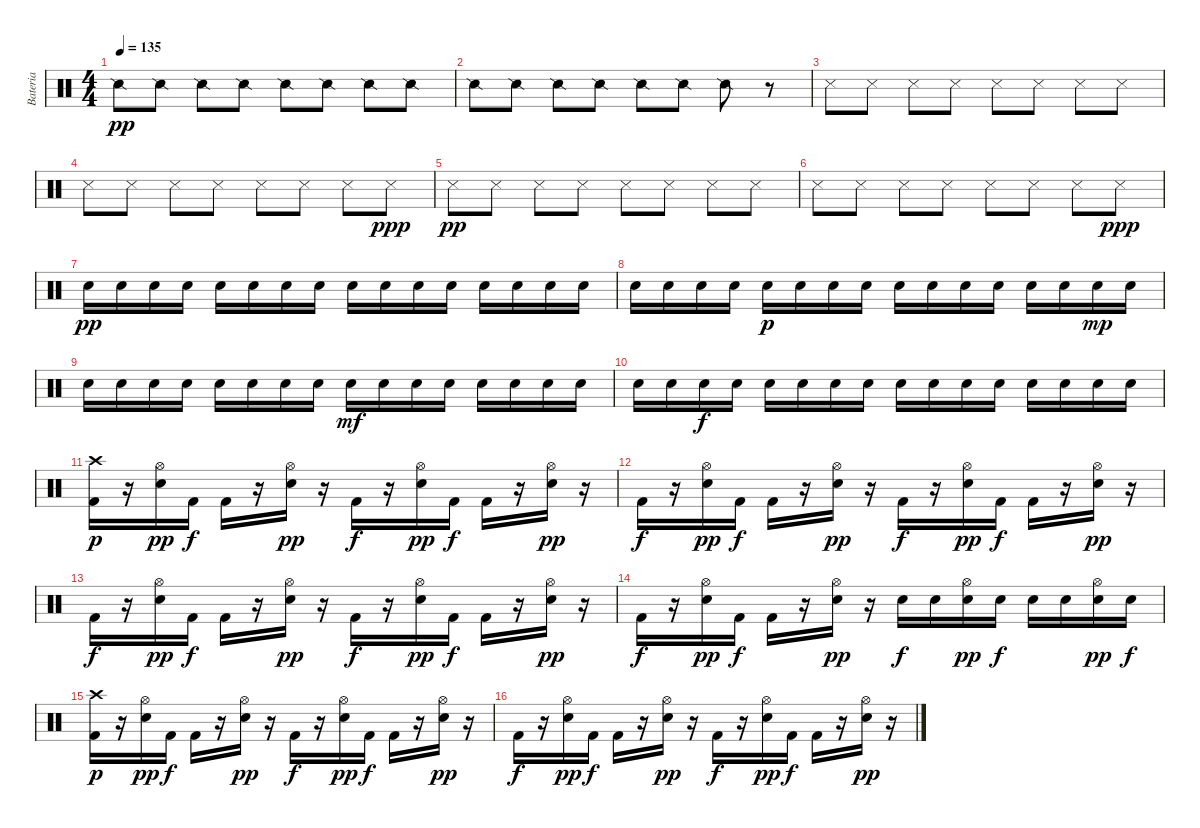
\track ("Bateria" "Bateria") {instrument percussion}
\staff {score}
\articulation defaults
\ts (4 4)
\tempo 135
\clef neutral
\ks c "Snare (side stick) 2".8{dy pp} "Snare (side stick) 2".8 "Snare (side stick) 2".8 "Snare (side stick) 2".8 "Snare (side stick) 2".8 "Snare (side stick) 2".8 "Snare (side stick) 2".8 "Snare (side stick) 2".8
|
"Snare (side stick) 2".8 "Snare (side stick) 2".8 "Snare (side stick) 2".8 "Snare (side stick) 2".8 "Snare (side stick) 2".8 "Snare (side stick) 2".8 "Snare (side stick) 2".8 r.8 |
"Snare (side stick) 3".8 "Snare (side stick) 3".8 "Snare (side stick) 3".8 "Snare (side stick) 3".8 "Snare (side stick) 3".8 "Snare (side stick) 3".8 "Snare (side stick) 3".8 "Snare (side stick) 3".8 |
"Snare (side stick) 3".8 "Snare (side stick) 3".8 "Snare (side stick) 3".8 "Snare (side stick) 3".8 "Snare (side stick) 3".8 "Snare (side stick) 3".8 "Snare (side stick) 3".8 "Snare (side stick) 3".8{dy ppp} |
"Snare (side stick) 3".8{dy pp} "Snare (side stick) 3".8 "Snare (side stick) 3".8 "Snare (side stick) 3".8 "Snare (side stick) 3".8 "Snare (side stick) 3".8 "Snare (side stick) 3".8 "Snare (side stick) 3".8 |
"Snare (side stick) 3".8 "Snare (side stick) 3".8 "Snare (side stick) 3".8 "Snare (side stick) 3".8 "Snare (side stick) 3".8 "Snare (side stick) 3".8 "Snare (side stick) 3".8 "Snare (side stick) 3".8{dy ppp} |
"Electric Snare (hit)".16{dy pp} "Electric Snare (hit)".16 "Electric Snare (hit)".16 "Electric Snare (hit)".16 "Electric Snare (hit)".16 "Electric Snare (hit)".16 "Electric Snare (hit)".16 "Electric Snare (hit)".16 "Electric Snare (hit)".16 "Electric Snare (hit)".16 "Electric Snare (hit)".16 "Electric Snare (hit)".16 "Electric Snare (hit)".16 "Electric Snare (hit)".16 "Electric Snare (hit)".16 "Electric Snare (hit)".16 |
"Electric Snare (hit)".16 "Electric Snare (hit)".16 "Electric Snare (hit)".16 "Electric Snare (hit)".16 "Electric Snare (hit)".16{dy p} "Electric Snare (hit)".16 "Electric Snare (hit)".16 "Electric Snare (hit)".16 "Electric Snare (hit)".16 "Electric Snare (hit)".16 "Electric Snare (hit)".16 "Electric Snare (hit)".16 "Electric Snare (hit)".16 "Electric Snare (hit)".16 "Electric Snare (hit)".16{dy mp} "Electric Snare (hit)".16 |
"Electric Snare (hit)".16 "Electric Snare (hit)".16 "Electric Snare (hit)".16 "Electric Snare (hit)".16 "Electric Snare (hit)".16 "Electric Snare (hit)".16 "Electric Snare (hit)".16 "Electric Snare (hit)".16 "Electric Snare (hit)".16{dy mf} "Electric Snare (hit)".16 "Electric Snare (hit)".16 "Electric Snare (hit)".16 "Electric Snare (hit)".16 "Electric Snare (hit)".16 "Electric Snare (hit)".16 "Electric Snare (hit)".16 |
"Electric Snare (hit)".16 "Electric Snare (hit)".16 "Electric Snare (hit)".16{dy f} "Electric Snare (hit)".16 "Electric Snare (hit)".16 "Electric Snare (hit)".16 "Electric Snare (hit)".16 "Electric Snare (hit)".16 "Electric Snare (hit)".16 "Electric Snare (hit)".16 "Electric Snare (hit)".16 "Electric Snare (hit)".16 "Electric Snare (hit)".16 "Electric Snare (hit)".16 "Electric Snare (hit)".16 "Electric Snare (hit)".16 |
("Kick (hit) 2" "Crash high (hit)").16{dy p} r.16 ("Electric Snare (hit)" "Hi-Hat (open)").16{dy pp} "Kick (hit) 2".16{dy f} "Kick (hit) 2".16 r.16 ("Electric Snare (hit)" "Hi-Hat (open)").16{dy pp} r.16 "Kick (hit) 2".16{dy f} r.16 ("Electric Snare (hit)" "Hi-Hat (open)").16{dy pp} "Kick (hit) 2".16{dy f} "Kick (hit) 2".16 r.16 ("Electric Snare (hit)" "Hi-Hat (open)").16{dy pp} r.16 |
"Kick (hit) 2".16{dy f} r.16 ("Electric Snare (hit)" "Hi-Hat (open)").16{dy pp} "Kick (hit) 2".16{dy f} "Kick (hit) 2".16 r.16 ("Electric Snare (hit)" "Hi-Hat (open)").16{dy pp} r.16 "Kick (hit) 2".16{dy f} r.16 ("Electric Snare (hit)" "Hi-Hat (open)").16{dy pp} "Kick (hit) 2".16{dy f} "Kick (hit) 2".16 r.16 ("Electric Snare (hit)" "Hi-Hat (open)").16{dy pp} r.16 |
"Kick (hit) 2".16{dy f} r.16 ("Electric Snare (hit)" "Hi-Hat (open)").16{dy pp} "Kick (hit) 2".16{dy f} "Kick (hit) 2".16 r.16 ("Electric Snare (hit)" "Hi-Hat (open)").16{dy pp} r.16 "Kick (hit) 2".16{dy f} r.16 ("Electric Snare (hit)" "Hi-Hat (open)").16{dy pp} "Kick (hit) 2".16{dy f} "Kick (hit) 2".16 r.16 ("Electric Snare (hit)" "Hi-Hat (open)").16{dy pp} r.16 |
"Kick (hit) 2".16{dy f} r.16 ("Electric Snare (hit)" "Hi-Hat (open)").16{dy pp} "Kick (hit) 2".16{dy f} "Kick (hit) 2".16 r.16 ("Electric Snare (hit)" "Hi-Hat (open)").16{dy pp} r.16 "Electric Snare (hit)".16{dy f} "Electric Snare (hit)".16 ("Electric Snare (hit)" "Hi-Hat (open)").16{dy pp} "Electric Snare (hit)".16{dy f} "Electric Snare (hit)".16 "Electric Snare (hit)".16 ("Electric Snare (hit)" "Hi-Hat (open)").16{dy pp} "Electric Snare (hit)".16{dy f} |
("Kick (hit) 2" "Crash high (hit)").16{dy p} r.16 ("Electric Snare (hit)" "Hi-Hat (open)").16{dy pp} "Kick (hit) 2".16{dy f} "Kick (hit) 2".16 r.16 ("Electric Snare (hit)" "Hi-Hat (open)").16{dy pp} r.16 "Kick (hit) 2".16{dy f} r.16 ("Electric Snare (hit)" "Hi-Hat (open)").16{dy pp} "Kick (hit) 2".16{dy f} "Kick (hit) 2".16 r.16 ("Electric Snare (hit)" "Hi-Hat (open)").16{dy pp} r.16 |
"Kick (hit) 2".16{dy f} r.16 ("Electric Snare (hit)" "Hi-Hat (open)").16{dy pp} "Kick (hit) 2".16{dy f} "Kick (hit) 2".16 r.16 ("Electric Snare (hit)" "Hi-Hat (open)").16{dy pp} r.16 "Kick (hit) 2".16{dy f} r.16 ("Electric Snare (hit)" "Hi-Hat (open)").16{dy pp} "Kick (hit) 2".16{dy f} "Kick (hit) 2".16 r.16 ("Electric Snare (hit)" "Hi-Hat (open)").16{dy pp} r.16
